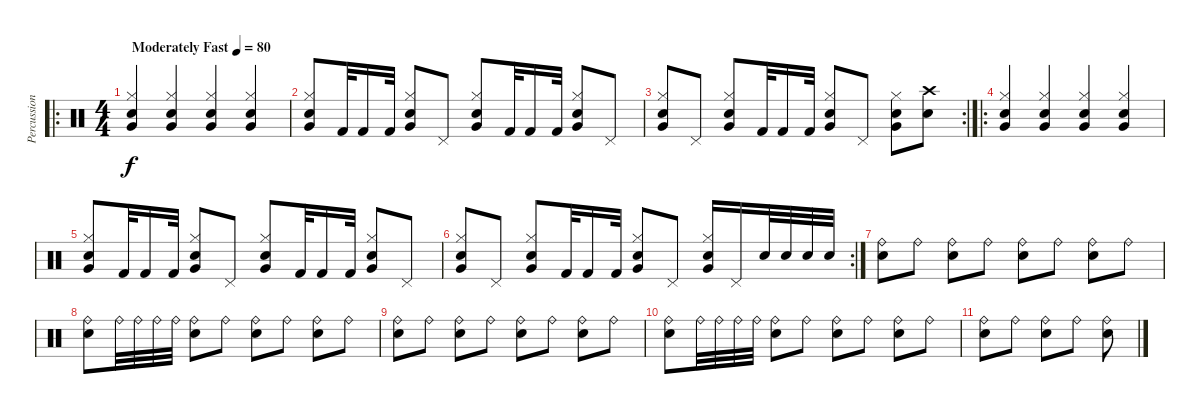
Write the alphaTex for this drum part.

\track ("Percussions" "Percussion") {instrument percussion}
\staff {score}
\articulation defaults
\ro
\ts (4 4)
\tempo (80 "Moderately Fast")
\clef neutral
\ks c
("Electric Snare (hit)" "Hi-Hat (closed)" "Very Low Tom (hit)").4{dy f} ("Electric Snare (hit)" "Hi-Hat (closed)" "Very Low Tom (hit)").4 ("Electric Snare (hit)" "Hi-Hat (closed)" "Very Low Tom (hit)").4 ("Electric Snare (hit)" "Hi-Hat (closed)" "Very Low Tom (hit)").4 |
("Electric Snare (hit)" "Very Low Tom (hit)" "Hi-Hat (closed)").8 "Kick (hit) 2".32 "Kick (hit) 2".16 "Kick (hit) 2".32 ("Electric Snare (hit)" "Very Low Tom (hit)" "Hi-Hat (closed)").8 "Pedal Hi-Hat (hit)".8 ("Electric Snare (hit)" "Very Low Tom (hit)" "Hi-Hat (closed)").8 "Kick (hit) 2".32 "Kick (hit) 2".16 "Kick (hit) 2".32 ("Hi-Hat (closed)" "Very Low Tom (hit)" "Electric Snare (hit)").8 "Pedal Hi-Hat (hit)".8 |
\rc 2
("Electric Snare (hit)" "Very Low Tom (hit)" "Hi-Hat (closed)").8 "Pedal Hi-Hat (hit)".8 ("Electric Snare (hit)" "Very Low Tom (hit)" "Hi-Hat (closed)").8 "Kick (hit) 2".32 "Kick (hit) 2".16 "Kick (hit) 2".32 ("Very Low Tom (hit)" "Hi-Hat (closed)" "Electric Snare (hit)").8 "Pedal Hi-Hat (hit)".8 ("Electric Snare (hit)" "Hi-Hat (closed)" "Very Low Tom (hit)").8 ("Crash high (hit)" "Electric Snare (hit)").8 |
\ro
("Electric Snare (hit)" "Hi-Hat (closed)" "Very Low Tom (hit)").4 ("Electric Snare (hit)" "Hi-Hat (closed)" "Very Low Tom (hit)").4 ("Electric Snare (hit)" "Hi-Hat (closed)" "Very Low Tom (hit)").4 ("Electric Snare (hit)" "Hi-Hat (closed)" "Very Low Tom (hit)").4 |
("Electric Snare (hit)" "Very Low Tom (hit)" "Hi-Hat (closed)").8 "Kick (hit) 2".32 "Kick (hit) 2".16 "Kick (hit) 2".32 ("Electric Snare (hit)" "Very Low Tom (hit)" "Hi-Hat (closed)").8 "Pedal Hi-Hat (hit)".8 ("Electric Snare (hit)" "Very Low Tom (hit)" "Hi-Hat (closed)").8 "Kick (hit) 2".32 "Kick (hit) 2".16 "Kick (hit) 2".32 ("Hi-Hat (closed)" "Very Low Tom (hit)" "Electric Snare (hit)").8 "Pedal Hi-Hat (hit)".8 |
\rc 2
("Electric Snare (hit)" "Very Low Tom (hit)" "Hi-Hat (closed)").8 "Pedal Hi-Hat (hit)".8 ("Electric Snare (hit)" "Very Low Tom (hit)" "Hi-Hat (closed)").8 "Kick (hit) 2".32 "Kick (hit) 2".16 "Kick (hit) 2".32 ("Very Low Tom (hit)" "Hi-Hat (closed)" "Electric Snare (hit)").8 "Pedal Hi-Hat (hit)".8 ("Electric Snare (hit)" "Hi-Hat (closed)" "Very Low Tom (hit)").16 "Pedal Hi-Hat (hit)".16 "Electric Snare (hit)".32 "Electric Snare (hit)".32 "Electric Snare (hit)".32 "Electric Snare (hit)".32 |
("Electric Snare (hit)" "Ride (bell)").8 "Ride (bell)".8 ("Electric Snare (hit)" "Ride (bell)").8 "Ride (bell)".8 ("Electric Snare (hit)" "Ride (bell)").8 "Ride (bell)".8 ("Electric Snare (hit)" "Ride (bell)").8 "Ride (bell)".8 |
("Electric Snare (hit)" "Ride (bell)").8 "Ride (bell)".32 "Ride (bell)".32 "Ride (bell)".32 "Ride (bell)".32 ("Electric Snare (hit)" "Ride (bell)").8 "Ride (bell)".8 ("Electric Snare (hit)" "Ride (bell)").8 "Ride (bell)".8 ("Electric Snare (hit)" "Ride (bell)").8 "Ride (bell)".8 |
("Electric Snare (hit)" "Ride (bell)").8 "Ride (bell)".8 ("Electric Snare (hit)" "Ride (bell)").8 "Ride (bell)".8 ("Electric Snare (hit)" "Ride (bell)").8 "Ride (bell)".8 ("Electric Snare (hit)" "Ride (bell)").8 "Ride (bell)".8 |
("Electric Snare (hit)" "Ride (bell)").8 "Ride (bell)".32 "Ride (bell)".32 "Ride (bell)".32 "Ride (bell)".32 ("Electric Snare (hit)" "Ride (bell)").8 "Ride (bell)".8 ("Electric Snare (hit)" "Ride (bell)").8 "Ride (bell)".8 ("Electric Snare (hit)" "Ride (bell)").8 "Ride (bell)".8 |
("Electric Snare (hit)" "Ride (bell)").8 "Ride (bell)".8 ("Electric Snare (hit)" "Ride (bell)").8 "Ride (bell)".8 ("Electric Snare (hit)" "Ride (bell)").8
